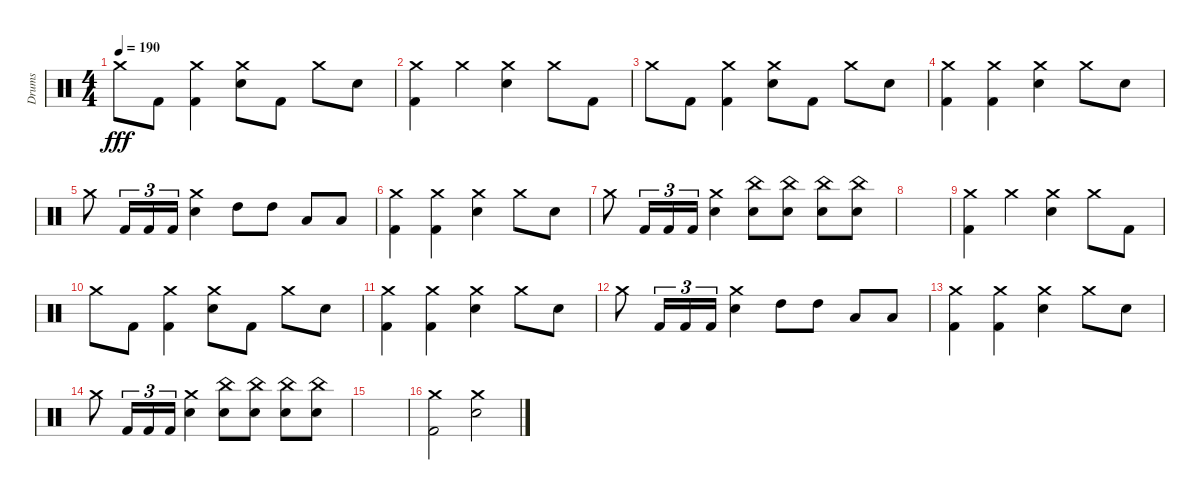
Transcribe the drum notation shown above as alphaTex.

\track ("Drums" "Drums") {instrument percussion}
\staff {score}
\articulation defaults
\ts (4 4)
\tempo 190
\clef neutral
\ks c "Crash medium (hit)".8{dy fff} "Kick (hit) 2".8
("Crash medium (hit)" "Kick (hit) 2").4 ("Electric Snare (hit)" "Crash medium (hit)").8 "Kick (hit) 2".8 "Crash medium (hit)".8 "Electric Snare (hit)".8 |
("Kick (hit) 2" "Crash medium (hit)").4 "Crash medium (hit)".4 ("Crash medium (hit)" "Electric Snare (hit)").4 "Crash medium (hit)".8 "Kick (hit) 2".8 |
"Crash medium (hit)".8 "Kick (hit) 2".8 ("Crash medium (hit)" "Kick (hit) 2").4 ("Electric Snare (hit)" "Crash medium (hit)").8 "Kick (hit) 2".8 "Crash medium (hit)".8 "Electric Snare (hit)".8 |
("Kick (hit) 2" "Crash medium (hit)").4 ("Kick (hit) 2" "Crash medium (hit)").4 ("Electric Snare (hit)" "Crash medium (hit)").4 "Crash medium (hit)".8 "Electric Snare (hit)".8 |
"Crash medium (hit)".8 "Kick (hit) 2".16{tu (3 2)} "Kick (hit) 2".16{tu (3 2)} "Kick (hit) 2".16{tu (3 2)} ("Electric Snare (hit)" "Crash medium (hit)").4 "High Tom (hit)".8 "High Tom (hit)".8 "Low Tom (hit)".8 "Low Tom (hit)".8 |
("Kick (hit) 2" "Crash medium (hit)").4 ("Kick (hit) 2" "Crash medium (hit)").4 ("Electric Snare (hit)" "Crash medium (hit)").4 "Crash medium (hit)".8 "Electric Snare (hit)".8 |
"Crash medium (hit)".8 "Kick (hit) 2".16{tu (3 2)} "Kick (hit) 2".16{tu (3 2)} "Kick (hit) 2".16{tu (3 2)} ("Electric Snare (hit)" "Crash medium (hit)").4 ("Electric Snare (hit)" "China (hit)").8 ("Electric Snare (hit)" "China (hit)").8 ("Electric Snare (hit)" "China (hit)").8 ("Electric Snare (hit)" "China (hit)").8 |
|
("Kick (hit) 2" "Crash medium (hit)").4 "Crash medium (hit)".4 ("Crash medium (hit)" "Electric Snare (hit)").4 "Crash medium (hit)".8 "Kick (hit) 2".8 |
"Crash medium (hit)".8 "Kick (hit) 2".8 ("Crash medium (hit)" "Kick (hit) 2").4 ("Electric Snare (hit)" "Crash medium (hit)").8 "Kick (hit) 2".8 "Crash medium (hit)".8 "Electric Snare (hit)".8 |
("Kick (hit) 2" "Crash medium (hit)").4 ("Kick (hit) 2" "Crash medium (hit)").4 ("Electric Snare (hit)" "Crash medium (hit)").4 "Crash medium (hit)".8 "Electric Snare (hit)".8 |
"Crash medium (hit)".8 "Kick (hit) 2".16{tu (3 2)} "Kick (hit) 2".16{tu (3 2)} "Kick (hit) 2".16{tu (3 2)} ("Electric Snare (hit)" "Crash medium (hit)").4 "High Tom (hit)".8 "High Tom (hit)".8 "Low Tom (hit)".8 "Low Tom (hit)".8 |
("Kick (hit) 2" "Crash medium (hit)").4 ("Kick (hit) 2" "Crash medium (hit)").4 ("Electric Snare (hit)" "Crash medium (hit)").4 "Crash medium (hit)".8 "Electric Snare (hit)".8 |
"Crash medium (hit)".8 "Kick (hit) 2".16{tu (3 2)} "Kick (hit) 2".16{tu (3 2)} "Kick (hit) 2".16{tu (3 2)} ("Electric Snare (hit)" "Crash medium (hit)").4 ("Electric Snare (hit)" "China (hit)").8 ("Electric Snare (hit)" "China (hit)").8 ("Electric Snare (hit)" "China (hit)").8 ("Electric Snare (hit)" "China (hit)").8 |
|
("Kick (hit) 2" "Crash medium (hit)").2 ("Electric Snare (hit)" "Crash medium (hit)").2
